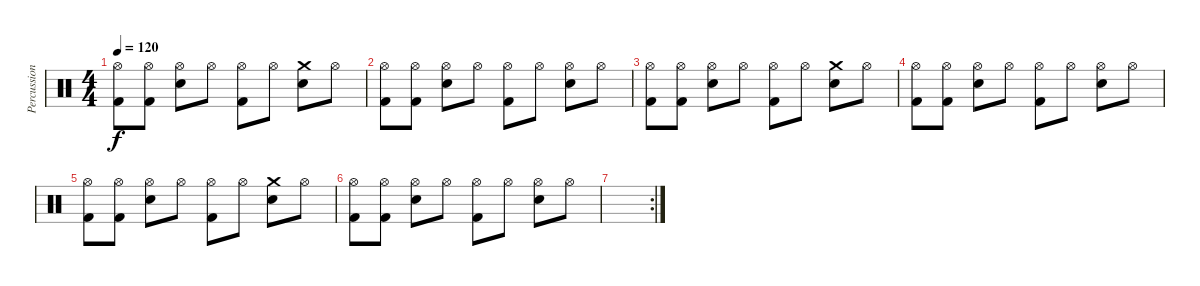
\track ("Percussion" "Percussion") {instrument percussion}
\staff {score}
\articulation defaults
\ts (4 4)
\tempo 120
\clef neutral
\ks c
("Hi-Hat (open)" "Kick (hit) 2").8{dy f} ("Hi-Hat (open)" "Kick (hit) 2").8 ("Hi-Hat (open)" "Snare (hit) 2").8 "Hi-Hat (open)".8 ("Hi-Hat (open)" "Kick (hit) 2").8 "Hi-Hat (open)".8 ("Crash medium (hit)" "Snare (hit) 2").8 "Hi-Hat (open)".8 |
("Hi-Hat (open)" "Kick (hit) 2").8 ("Hi-Hat (open)" "Kick (hit) 2").8 ("Hi-Hat (open)" "Snare (hit) 2").8 "Hi-Hat (open)".8 ("Hi-Hat (open)" "Kick (hit) 2").8 "Hi-Hat (open)".8 ("Hi-Hat (open)" "Snare (hit) 2").8 "Hi-Hat (open)".8 |
("Hi-Hat (open)" "Kick (hit) 2").8 ("Hi-Hat (open)" "Kick (hit) 2").8 ("Hi-Hat (open)" "Snare (hit) 2").8 "Hi-Hat (open)".8 ("Hi-Hat (open)" "Kick (hit) 2").8 "Hi-Hat (open)".8 ("Crash medium (hit)" "Snare (hit) 2").8 "Hi-Hat (open)".8 |
("Hi-Hat (open)" "Kick (hit) 2").8 ("Hi-Hat (open)" "Kick (hit) 2").8 ("Hi-Hat (open)" "Snare (hit) 2").8 "Hi-Hat (open)".8 ("Hi-Hat (open)" "Kick (hit) 2").8 "Hi-Hat (open)".8 ("Hi-Hat (open)" "Snare (hit) 2").8 "Hi-Hat (open)".8 |
("Hi-Hat (open)" "Kick (hit) 2").8 ("Hi-Hat (open)" "Kick (hit) 2").8 ("Hi-Hat (open)" "Snare (hit) 2").8 "Hi-Hat (open)".8 ("Hi-Hat (open)" "Kick (hit) 2").8 "Hi-Hat (open)".8 ("Crash medium (hit)" "Snare (hit) 2").8 "Hi-Hat (open)".8 |
("Hi-Hat (open)" "Kick (hit) 2").8 ("Hi-Hat (open)" "Kick (hit) 2").8 ("Hi-Hat (open)" "Snare (hit) 2").8 "Hi-Hat (open)".8 ("Hi-Hat (open)" "Kick (hit) 2").8 "Hi-Hat (open)".8 ("Hi-Hat (open)" "Snare (hit) 2").8 "Hi-Hat (open)".8 |
\rc 2
